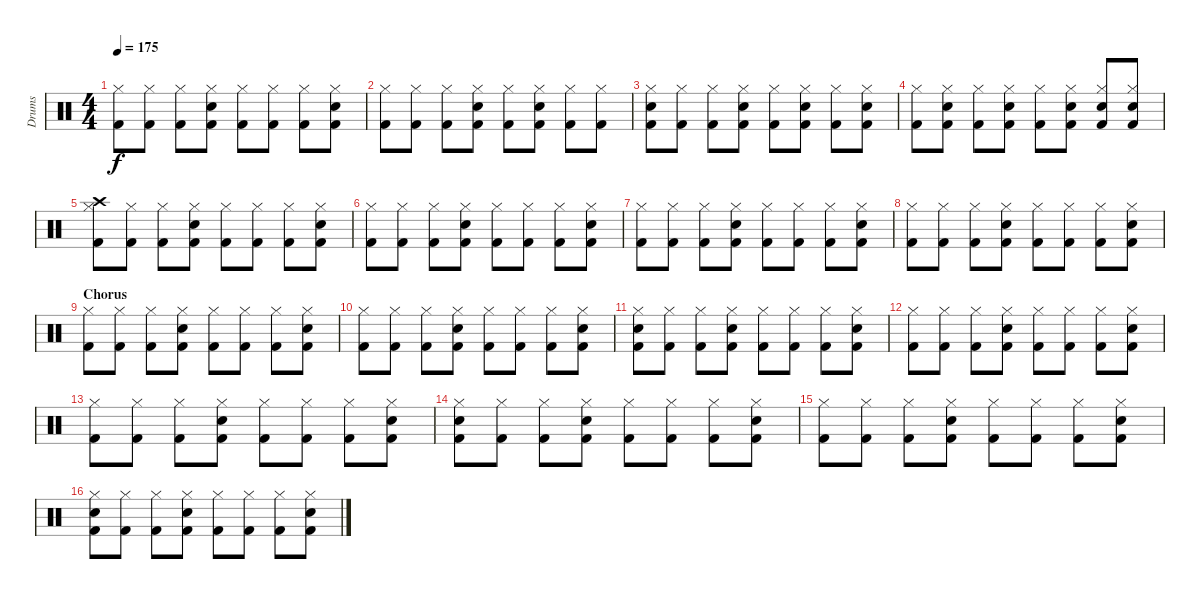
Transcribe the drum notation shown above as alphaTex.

\track ("Drums" "Drums") {instrument percussion}
\staff {score}
\articulation defaults
\ts (4 4)
\tempo 175
\clef neutral
\ks c
("Kick (hit) 2" "Hi-Hat (closed)").8{dy f} ("Kick (hit) 2" "Hi-Hat (closed)").8 ("Kick (hit) 2" "Hi-Hat (closed)").8 ("Kick (hit) 2" "Hi-Hat (closed)" "Snare (hit) 2").8 ("Kick (hit) 2" "Hi-Hat (closed)").8 ("Kick (hit) 2" "Hi-Hat (closed)").8 ("Kick (hit) 2" "Hi-Hat (closed)").8 ("Kick (hit) 2" "Hi-Hat (closed)" "Snare (hit) 2").8 |
("Kick (hit) 2" "Hi-Hat (closed)").8 ("Kick (hit) 2" "Hi-Hat (closed)").8 ("Kick (hit) 2" "Hi-Hat (closed)").8 ("Kick (hit) 2" "Hi-Hat (closed)" "Snare (hit) 2").8 ("Kick (hit) 2" "Hi-Hat (closed)").8 ("Kick (hit) 2" "Hi-Hat (closed)" "Snare (hit) 2").8 ("Kick (hit) 2" "Hi-Hat (closed)").8 ("Kick (hit) 2" "Hi-Hat (closed)").8 |
("Kick (hit) 2" "Hi-Hat (closed)" "Snare (hit) 2").8 ("Kick (hit) 2" "Hi-Hat (closed)").8 ("Kick (hit) 2" "Hi-Hat (closed)").8 ("Kick (hit) 2" "Hi-Hat (closed)" "Snare (hit) 2").8 ("Kick (hit) 2" "Hi-Hat (closed)").8 ("Kick (hit) 2" "Hi-Hat (closed)" "Snare (hit) 2").8 ("Kick (hit) 2" "Hi-Hat (closed)").8 ("Kick (hit) 2" "Hi-Hat (closed)" "Snare (hit) 2").8 |
("Kick (hit) 2" "Hi-Hat (closed)").8 ("Kick (hit) 2" "Hi-Hat (closed)" "Snare (hit) 2").8 ("Kick (hit) 2" "Hi-Hat (closed)").8 ("Kick (hit) 2" "Hi-Hat (closed)" "Snare (hit) 2").8 ("Kick (hit) 2" "Hi-Hat (closed)").8 ("Kick (hit) 2" "Hi-Hat (closed)" "Snare (hit) 2").8 ("Kick (hit) 2" "Hi-Hat (closed)" "Snare (hit) 2").8 ("Kick (hit) 2" "Hi-Hat (closed)" "Snare (hit) 2").8 |
("Kick (hit) 2" "Hi-Hat (closed)" "Crash high (hit)").8 ("Kick (hit) 2" "Hi-Hat (closed)").8 ("Kick (hit) 2" "Hi-Hat (closed)").8 ("Kick (hit) 2" "Hi-Hat (closed)" "Snare (hit) 2").8 ("Kick (hit) 2" "Hi-Hat (closed)").8 ("Kick (hit) 2" "Hi-Hat (closed)").8 ("Kick (hit) 2" "Hi-Hat (closed)").8 ("Kick (hit) 2" "Hi-Hat (closed)" "Snare (hit) 2").8 |
("Kick (hit) 2" "Hi-Hat (closed)").8 ("Kick (hit) 2" "Hi-Hat (closed)").8 ("Kick (hit) 2" "Hi-Hat (closed)").8 ("Kick (hit) 2" "Hi-Hat (closed)" "Snare (hit) 2").8 ("Kick (hit) 2" "Hi-Hat (closed)").8 ("Kick (hit) 2" "Hi-Hat (closed)").8 ("Kick (hit) 2" "Hi-Hat (closed)").8 ("Kick (hit) 2" "Hi-Hat (closed)" "Snare (hit) 2").8 |
("Kick (hit) 2" "Hi-Hat (closed)").8 ("Kick (hit) 2" "Hi-Hat (closed)").8 ("Kick (hit) 2" "Hi-Hat (closed)").8 ("Kick (hit) 2" "Hi-Hat (closed)" "Snare (hit) 2").8 ("Kick (hit) 2" "Hi-Hat (closed)").8 ("Kick (hit) 2" "Hi-Hat (closed)").8 ("Kick (hit) 2" "Hi-Hat (closed)").8 ("Kick (hit) 2" "Hi-Hat (closed)" "Snare (hit) 2").8 |
("Kick (hit) 2" "Hi-Hat (closed)").8 ("Kick (hit) 2" "Hi-Hat (closed)").8 ("Kick (hit) 2" "Hi-Hat (closed)").8 ("Kick (hit) 2" "Hi-Hat (closed)" "Snare (hit) 2").8 ("Kick (hit) 2" "Hi-Hat (closed)").8 ("Kick (hit) 2" "Hi-Hat (closed)").8 ("Kick (hit) 2" "Hi-Hat (closed)").8 ("Kick (hit) 2" "Hi-Hat (closed)" "Snare (hit) 2").8 |
\section ("" "Chorus")
("Kick (hit) 2" "Hi-Hat (closed)").8 ("Kick (hit) 2" "Hi-Hat (closed)").8 ("Kick (hit) 2" "Hi-Hat (closed)").8 ("Kick (hit) 2" "Hi-Hat (closed)" "Snare (hit) 2").8 ("Kick (hit) 2" "Hi-Hat (closed)").8 ("Kick (hit) 2" "Hi-Hat (closed)").8 ("Kick (hit) 2" "Hi-Hat (closed)").8 ("Kick (hit) 2" "Hi-Hat (closed)" "Snare (hit) 2").8 |
("Kick (hit) 2" "Hi-Hat (closed)").8 ("Kick (hit) 2" "Hi-Hat (closed)").8 ("Kick (hit) 2" "Hi-Hat (closed)").8 ("Kick (hit) 2" "Hi-Hat (closed)" "Snare (hit) 2").8 ("Kick (hit) 2" "Hi-Hat (closed)").8 ("Kick (hit) 2" "Hi-Hat (closed)").8 ("Kick (hit) 2" "Hi-Hat (closed)").8 ("Kick (hit) 2" "Hi-Hat (closed)" "Snare (hit) 2").8 |
("Kick (hit) 2" "Hi-Hat (closed)" "Metronome (bell)").8 ("Kick (hit) 2" "Hi-Hat (closed)").8 ("Kick (hit) 2" "Hi-Hat (closed)").8 ("Kick (hit) 2" "Hi-Hat (closed)" "Snare (hit) 2").8 ("Kick (hit) 2" "Hi-Hat (closed)").8 ("Kick (hit) 2" "Hi-Hat (closed)").8 ("Kick (hit) 2" "Hi-Hat (closed)").8 ("Kick (hit) 2" "Hi-Hat (closed)" "Snare (hit) 2").8 |
("Kick (hit) 2" "Hi-Hat (closed)").8 ("Kick (hit) 2" "Hi-Hat (closed)").8 ("Kick (hit) 2" "Hi-Hat (closed)").8 ("Kick (hit) 2" "Hi-Hat (closed)" "Snare (hit) 2").8 ("Kick (hit) 2" "Hi-Hat (closed)").8 ("Kick (hit) 2" "Hi-Hat (closed)").8 ("Kick (hit) 2" "Hi-Hat (closed)").8 ("Kick (hit) 2" "Hi-Hat (closed)" "Snare (hit) 2").8 |
("Kick (hit) 2" "Hi-Hat (closed)").8 ("Kick (hit) 2" "Hi-Hat (closed)").8 ("Kick (hit) 2" "Hi-Hat (closed)").8 ("Kick (hit) 2" "Hi-Hat (closed)" "Snare (hit) 2").8 ("Kick (hit) 2" "Hi-Hat (closed)").8 ("Kick (hit) 2" "Hi-Hat (closed)").8 ("Kick (hit) 2" "Hi-Hat (closed)").8 ("Kick (hit) 2" "Hi-Hat (closed)" "Snare (hit) 2").8 |
("Kick (hit) 2" "Hi-Hat (closed)" "Metronome (bell)").8 ("Kick (hit) 2" "Hi-Hat (closed)").8 ("Kick (hit) 2" "Hi-Hat (closed)").8 ("Kick (hit) 2" "Hi-Hat (closed)" "Snare (hit) 2").8 ("Kick (hit) 2" "Hi-Hat (closed)").8 ("Kick (hit) 2" "Hi-Hat (closed)").8 ("Kick (hit) 2" "Hi-Hat (closed)").8 ("Kick (hit) 2" "Hi-Hat (closed)" "Snare (hit) 2").8 |
("Kick (hit) 2" "Hi-Hat (closed)").8 ("Kick (hit) 2" "Hi-Hat (closed)").8 ("Kick (hit) 2" "Hi-Hat (closed)").8 ("Kick (hit) 2" "Hi-Hat (closed)" "Snare (hit) 2").8 ("Kick (hit) 2" "Hi-Hat (closed)").8 ("Kick (hit) 2" "Hi-Hat (closed)").8 ("Kick (hit) 2" "Hi-Hat (closed)").8 ("Kick (hit) 2" "Hi-Hat (closed)" "Snare (hit) 2").8 |
("Kick (hit) 2" "Hi-Hat (closed)" "Metronome (bell)").8 ("Kick (hit) 2" "Hi-Hat (closed)").8 ("Kick (hit) 2" "Hi-Hat (closed)").8 ("Kick (hit) 2" "Hi-Hat (closed)" "Snare (hit) 2").8 ("Kick (hit) 2" "Hi-Hat (closed)").8 ("Kick (hit) 2" "Hi-Hat (closed)").8 ("Kick (hit) 2" "Hi-Hat (closed)").8 ("Kick (hit) 2" "Hi-Hat (closed)" "Snare (hit) 2").8
